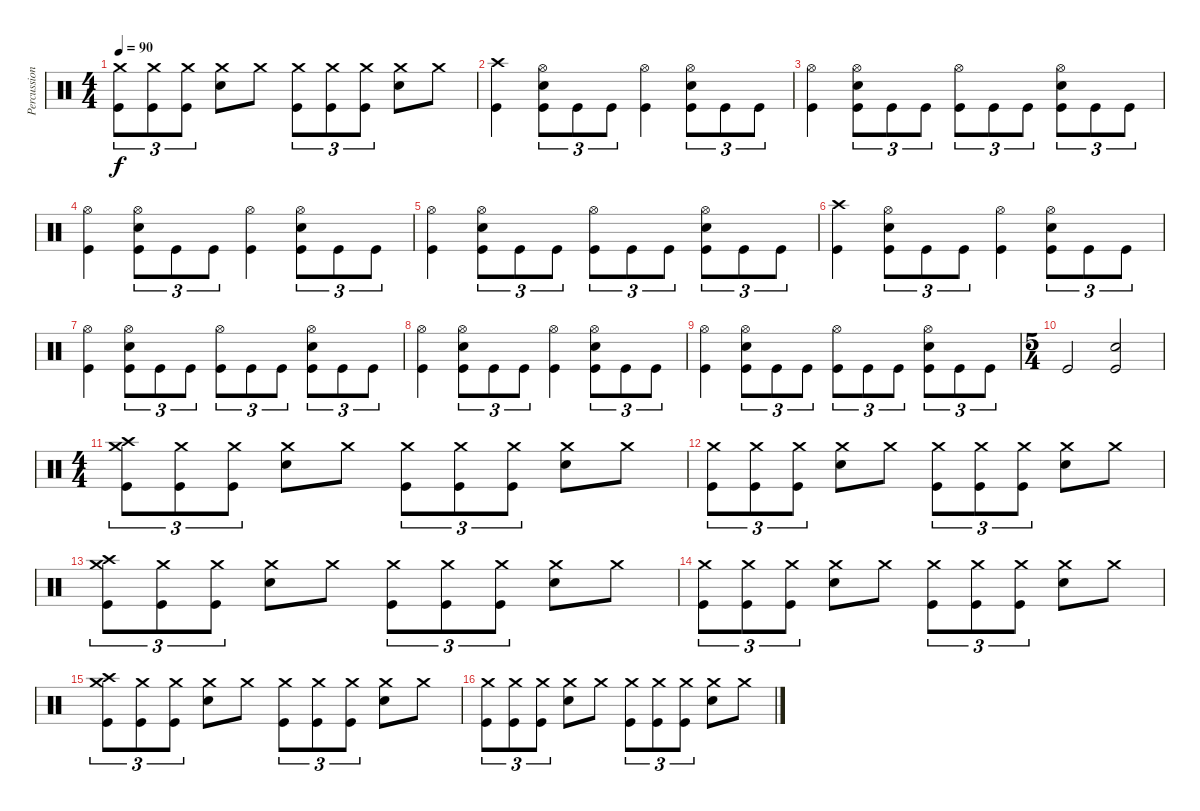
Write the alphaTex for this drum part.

\track ("Percussion" "Percussion") {instrument percussion}
\staff
\articulation defaults
\ts (4 4)
\tempo 90
\clef neutral
\ks c
("Crash medium (hit)" "Kick (hit)").8{tu (3 2) dy f} ("Crash medium (hit)" "Kick (hit)").8{tu (3 2)} ("Crash medium (hit)" "Kick (hit)").8{tu (3 2)} ("Crash medium (hit)" "Snare (hit) 2").8 "Crash medium (hit)".8 ("Crash medium (hit)" "Kick (hit)").8{tu (3 2)} ("Crash medium (hit)" "Kick (hit)").8{tu (3 2)} ("Crash medium (hit)" "Kick (hit)").8{tu (3 2)} ("Crash medium (hit)" "Snare (hit) 2").8 "Crash medium (hit)".8 |
("Crash high (hit)" "Kick (hit)").4 ("Snare (hit) 2" "Hi-Hat (open)" "Kick (hit)").8{tu (3 2)} "Kick (hit)".8{tu (3 2)} "Kick (hit)".8{tu (3 2)} ("Hi-Hat (open)" "Kick (hit)").4 ("Snare (hit) 2" "Hi-Hat (open)" "Kick (hit)").8{tu (3 2)} "Kick (hit)".8{tu (3 2)} "Kick (hit)".8{tu (3 2)} |
("Hi-Hat (open)" "Kick (hit)").4 ("Snare (hit) 2" "Hi-Hat (open)" "Kick (hit)").8{tu (3 2)} "Kick (hit)".8{tu (3 2)} "Kick (hit)".8{tu (3 2)} ("Hi-Hat (open)" "Kick (hit)").8{tu (3 2)} "Kick (hit)".8{tu (3 2)} "Kick (hit)".8{tu (3 2)} ("Snare (hit) 2" "Hi-Hat (open)" "Kick (hit)").8{tu (3 2)} "Kick (hit)".8{tu (3 2)} "Kick (hit)".8{tu (3 2)} |
("Hi-Hat (open)" "Kick (hit)").4 ("Snare (hit) 2" "Hi-Hat (open)" "Kick (hit)").8{tu (3 2)} "Kick (hit)".8{tu (3 2)} "Kick (hit)".8{tu (3 2)} ("Hi-Hat (open)" "Kick (hit)").4 ("Snare (hit) 2" "Hi-Hat (open)" "Kick (hit)").8{tu (3 2)} "Kick (hit)".8{tu (3 2)} "Kick (hit)".8{tu (3 2)} |
("Hi-Hat (open)" "Kick (hit)").4 ("Snare (hit) 2" "Hi-Hat (open)" "Kick (hit)").8{tu (3 2)} "Kick (hit)".8{tu (3 2)} "Kick (hit)".8{tu (3 2)} ("Hi-Hat (open)" "Kick (hit)").8{tu (3 2)} "Kick (hit)".8{tu (3 2)} "Kick (hit)".8{tu (3 2)} ("Snare (hit) 2" "Hi-Hat (open)" "Kick (hit)").8{tu (3 2)} "Kick (hit)".8{tu (3 2)} "Kick (hit)".8{tu (3 2)} |
("Crash high (hit)" "Kick (hit)").4 ("Snare (hit) 2" "Hi-Hat (open)" "Kick (hit)").8{tu (3 2)} "Kick (hit)".8{tu (3 2)} "Kick (hit)".8{tu (3 2)} ("Hi-Hat (open)" "Kick (hit)").4 ("Snare (hit) 2" "Hi-Hat (open)" "Kick (hit)").8{tu (3 2)} "Kick (hit)".8{tu (3 2)} "Kick (hit)".8{tu (3 2)} |
("Hi-Hat (open)" "Kick (hit)").4 ("Snare (hit) 2" "Hi-Hat (open)" "Kick (hit)").8{tu (3 2)} "Kick (hit)".8{tu (3 2)} "Kick (hit)".8{tu (3 2)} ("Hi-Hat (open)" "Kick (hit)").8{tu (3 2)} "Kick (hit)".8{tu (3 2)} "Kick (hit)".8{tu (3 2)} ("Snare (hit) 2" "Hi-Hat (open)" "Kick (hit)").8{tu (3 2)} "Kick (hit)".8{tu (3 2)} "Kick (hit)".8{tu (3 2)} |
("Hi-Hat (open)" "Kick (hit)").4 ("Snare (hit) 2" "Hi-Hat (open)" "Kick (hit)").8{tu (3 2)} "Kick (hit)".8{tu (3 2)} "Kick (hit)".8{tu (3 2)} ("Hi-Hat (open)" "Kick (hit)").4 ("Snare (hit) 2" "Hi-Hat (open)" "Kick (hit)").8{tu (3 2)} "Kick (hit)".8{tu (3 2)} "Kick (hit)".8{tu (3 2)} |
("Hi-Hat (open)" "Kick (hit)").4 ("Snare (hit) 2" "Hi-Hat (open)" "Kick (hit)").8{tu (3 2)} "Kick (hit)".8{tu (3 2)} "Kick (hit)".8{tu (3 2)} ("Hi-Hat (open)" "Kick (hit)").8{tu (3 2)} "Kick (hit)".8{tu (3 2)} "Kick (hit)".8{tu (3 2)} ("Snare (hit) 2" "Hi-Hat (open)" "Kick (hit)").8{tu (3 2)} "Kick (hit)".8{tu (3 2)} "Kick (hit)".8{tu (3 2)} |
\ts (5 4)
"Kick (hit)".2 ("Snare (hit) 2" "Kick (hit)").2 |
\ts (4 4)
("Crash high (hit)" "Crash medium (hit)" "Kick (hit)").8{tu (3 2)} ("Crash medium (hit)" "Kick (hit)").8{tu (3 2)} ("Crash medium (hit)" "Kick (hit)").8{tu (3 2)} ("Crash medium (hit)" "Snare (hit) 2").8 "Crash medium (hit)".8 ("Crash medium (hit)" "Kick (hit)").8{tu (3 2)} ("Crash medium (hit)" "Kick (hit)").8{tu (3 2)} ("Crash medium (hit)" "Kick (hit)").8{tu (3 2)} ("Crash medium (hit)" "Snare (hit) 2").8 "Crash medium (hit)".8 |
("Crash medium (hit)" "Kick (hit)").8{tu (3 2)} ("Crash medium (hit)" "Kick (hit)").8{tu (3 2)} ("Crash medium (hit)" "Kick (hit)").8{tu (3 2)} ("Crash medium (hit)" "Snare (hit) 2").8 "Crash medium (hit)".8 ("Crash medium (hit)" "Kick (hit)").8{tu (3 2)} ("Crash medium (hit)" "Kick (hit)").8{tu (3 2)} ("Crash medium (hit)" "Kick (hit)").8{tu (3 2)} ("Crash medium (hit)" "Snare (hit) 2").8 "Crash medium (hit)".8 |
("Crash high (hit)" "Crash medium (hit)" "Kick (hit)").8{tu (3 2)} ("Crash medium (hit)" "Kick (hit)").8{tu (3 2)} ("Crash medium (hit)" "Kick (hit)").8{tu (3 2)} ("Crash medium (hit)" "Snare (hit) 2").8 "Crash medium (hit)".8 ("Crash medium (hit)" "Kick (hit)").8{tu (3 2)} ("Crash medium (hit)" "Kick (hit)").8{tu (3 2)} ("Crash medium (hit)" "Kick (hit)").8{tu (3 2)} ("Crash medium (hit)" "Snare (hit) 2").8 "Crash medium (hit)".8 |
("Crash medium (hit)" "Kick (hit)").8{tu (3 2)} ("Crash medium (hit)" "Kick (hit)").8{tu (3 2)} ("Crash medium (hit)" "Kick (hit)").8{tu (3 2)} ("Crash medium (hit)" "Snare (hit) 2").8 "Crash medium (hit)".8 ("Crash medium (hit)" "Kick (hit)").8{tu (3 2)} ("Crash medium (hit)" "Kick (hit)").8{tu (3 2)} ("Crash medium (hit)" "Kick (hit)").8{tu (3 2)} ("Crash medium (hit)" "Snare (hit) 2").8 "Crash medium (hit)".8 |
("Crash high (hit)" "Crash medium (hit)" "Kick (hit)").8{tu (3 2)} ("Crash medium (hit)" "Kick (hit)").8{tu (3 2)} ("Crash medium (hit)" "Kick (hit)").8{tu (3 2)} ("Crash medium (hit)" "Snare (hit) 2").8 "Crash medium (hit)".8 ("Crash medium (hit)" "Kick (hit)").8{tu (3 2)} ("Crash medium (hit)" "Kick (hit)").8{tu (3 2)} ("Crash medium (hit)" "Kick (hit)").8{tu (3 2)} ("Crash medium (hit)" "Snare (hit) 2").8 "Crash medium (hit)".8 |
("Crash medium (hit)" "Kick (hit)").8{tu (3 2)} ("Crash medium (hit)" "Kick (hit)").8{tu (3 2)} ("Crash medium (hit)" "Kick (hit)").8{tu (3 2)} ("Crash medium (hit)" "Snare (hit) 2").8 "Crash medium (hit)".8 ("Crash medium (hit)" "Kick (hit)").8{tu (3 2)} ("Crash medium (hit)" "Kick (hit)").8{tu (3 2)} ("Crash medium (hit)" "Kick (hit)").8{tu (3 2)} ("Crash medium (hit)" "Snare (hit) 2").8 "Crash medium (hit)".8
